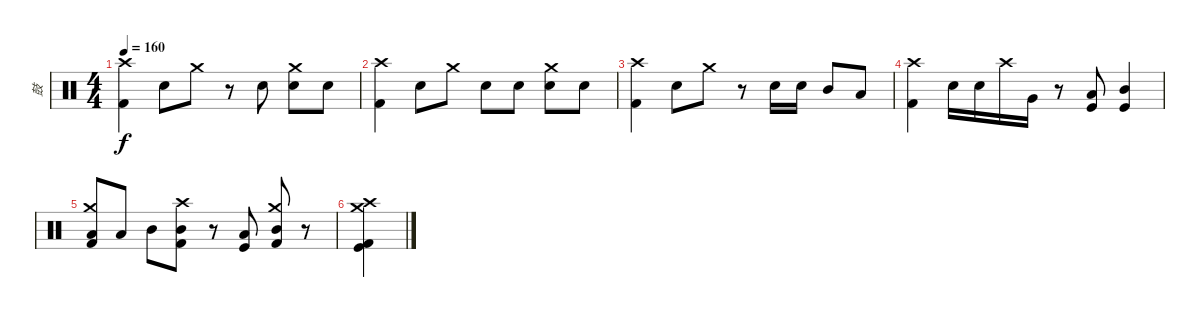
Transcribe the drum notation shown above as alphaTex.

\track ("鼓" "鼓") {instrument percussion}
\staff {score}
\articulation defaults
\ts (4 4)
\tempo 160
\clef neutral
\ks c
("Crash high (hit)" "Kick (hit) 2").4{dy f} "Snare (hit) 2".8 "Crash medium (hit)".8 r.8 "Snare (hit) 2".8 ("Crash medium (hit)" "Snare (hit) 2").8 "Snare (hit) 2".8 |
("Crash high (hit)" "Kick (hit) 2").4 "Snare (hit) 2".8 "Crash medium (hit)".8 "Snare (hit) 2".8 "Snare (hit) 2".8 ("Crash medium (hit)" "Snare (hit) 2").8 "Snare (hit) 2".8 |
("Crash high (hit)" "Kick (hit) 2").4 "Snare (hit) 2".8 "Crash medium (hit)".8 r.8 "Snare (hit) 2".16 "Snare (hit) 2".16 "Mid Tom (hit)".8 "Low Tom (hit)".8 |
("Crash high (hit)" "Kick (hit) 2").4 "Snare (hit) 2".16 "Snare (hit) 2".16 "Crash high (hit)".16 "Very Low Tom (hit)".16 r.8 ("Low Tom (hit)" "Kick (hit)").8 ("Mid Tom (hit)" "Kick (hit)").4 |
("Crash medium (hit)" "Low Tom (hit)" "Kick (hit) 2").8 "Low Tom (hit)".8 "Mid Tom (hit)".8 ("Crash high (hit)" "Mid Tom (hit)" "Kick (hit) 2").8 r.8 ("Low Tom (hit)" "Kick (hit)").8 ("Crash medium (hit)" "Mid Tom (hit)" "Kick (hit) 2").8 r.8 |
("Crash medium (hit)" "Crash high (hit)" "Kick (hit)" "Kick (hit) 2").4
